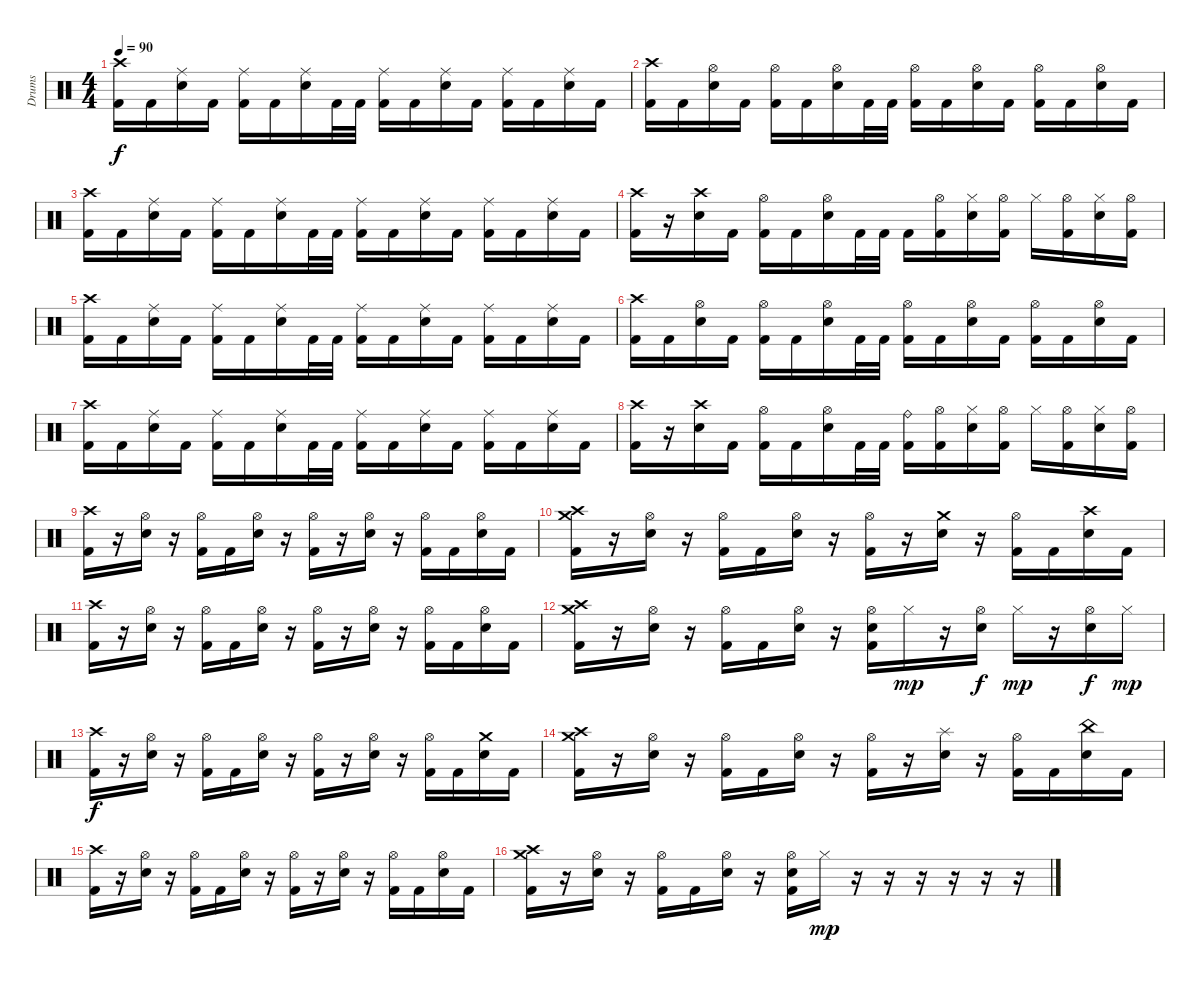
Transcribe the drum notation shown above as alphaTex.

\track ("Drums" "Drums") {instrument percussion}
\staff {score}
\articulation defaults
\ts (4 4)
\tempo 90
\clef neutral
\ks c
("Crash high (hit)" "Kick (hit) 2").16{dy f} "Kick (hit) 2".16 ("Ride (middle)" "Snare (hit) 2").16 "Kick (hit) 2".16 ("Ride (middle)" "Kick (hit) 2").16 "Kick (hit) 2".16 ("Ride (middle)" "Snare (hit) 2").16 "Kick (hit) 2".32 "Kick (hit) 2".32 ("Ride (middle)" "Kick (hit) 2").16 "Kick (hit) 2".16 ("Ride (middle)" "Snare (hit) 2").16 "Kick (hit) 2".16 ("Ride (middle)" "Kick (hit) 2").16 "Kick (hit) 2".16 ("Ride (middle)" "Snare (hit) 2").16 "Kick (hit) 2".16 |
("Crash high (hit)" "Kick (hit) 2").16 "Kick (hit) 2".16 ("Hi-Hat (open)" "Snare (hit) 2").16 "Kick (hit) 2".16 ("Hi-Hat (open)" "Kick (hit) 2").16 "Kick (hit) 2".16 ("Hi-Hat (open)" "Snare (hit) 2").16 "Kick (hit) 2".32 "Kick (hit) 2".32 ("Hi-Hat (open)" "Kick (hit) 2").16 "Kick (hit) 2".16 ("Hi-Hat (open)" "Snare (hit) 2").16 "Kick (hit) 2".16 ("Hi-Hat (open)" "Kick (hit) 2").16 "Kick (hit) 2".16 ("Hi-Hat (open)" "Snare (hit) 2").16 "Kick (hit) 2".16 |
("Crash high (hit)" "Kick (hit) 2").16 "Kick (hit) 2".16 ("Ride (middle)" "Snare (hit) 2").16 "Kick (hit) 2".16 ("Ride (middle)" "Kick (hit) 2").16 "Kick (hit) 2".16 ("Ride (middle)" "Snare (hit) 2").16 "Kick (hit) 2".32 "Kick (hit) 2".32 ("Ride (middle)" "Kick (hit) 2").16 "Kick (hit) 2".16 ("Ride (middle)" "Snare (hit) 2").16 "Kick (hit) 2".16 ("Ride (middle)" "Kick (hit) 2").16 "Kick (hit) 2".16 ("Ride (middle)" "Snare (hit) 2").16 "Kick (hit) 2".16 |
("Crash high (hit)" "Kick (hit) 2").16 r.16 ("Crash high (hit)" "Snare (hit) 2").16 "Kick (hit) 2".16 ("Hi-Hat (open)" "Kick (hit) 2").16 "Kick (hit) 2".16 ("Hi-Hat (open)" "Snare (hit) 2").16 "Kick (hit) 2".32 "Kick (hit) 2".32 "Kick (hit) 2".16 ("Hi-Hat (open)" "Kick (hit) 2").16 ("Hi-Hat (closed)" "Snare (hit) 2").16 ("Hi-Hat (open)" "Kick (hit) 2").16 "Hi-Hat (closed)".16 ("Hi-Hat (open)" "Kick (hit) 2").16 ("Hi-Hat (closed)" "Snare (hit) 2").16 ("Hi-Hat (open)" "Kick (hit) 2").16 |
("Crash high (hit)" "Kick (hit) 2").16 "Kick (hit) 2".16 ("Ride (middle)" "Snare (hit) 2").16 "Kick (hit) 2".16 ("Ride (middle)" "Kick (hit) 2").16 "Kick (hit) 2".16 ("Ride (middle)" "Snare (hit) 2").16 "Kick (hit) 2".32 "Kick (hit) 2".32 ("Ride (middle)" "Kick (hit) 2").16 "Kick (hit) 2".16 ("Ride (middle)" "Snare (hit) 2").16 "Kick (hit) 2".16 ("Ride (middle)" "Kick (hit) 2").16 "Kick (hit) 2".16 ("Ride (middle)" "Snare (hit) 2").16 "Kick (hit) 2".16 |
("Crash high (hit)" "Kick (hit) 2").16 "Kick (hit) 2".16 ("Hi-Hat (open)" "Snare (hit) 2").16 "Kick (hit) 2".16 ("Hi-Hat (open)" "Kick (hit) 2").16 "Kick (hit) 2".16 ("Hi-Hat (open)" "Snare (hit) 2").16 "Kick (hit) 2".32 "Kick (hit) 2".32 ("Hi-Hat (open)" "Kick (hit) 2").16 "Kick (hit) 2".16 ("Hi-Hat (open)" "Snare (hit) 2").16 "Kick (hit) 2".16 ("Hi-Hat (open)" "Kick (hit) 2").16 "Kick (hit) 2".16 ("Hi-Hat (open)" "Snare (hit) 2").16 "Kick (hit) 2".16 |
("Crash high (hit)" "Kick (hit) 2").16 "Kick (hit) 2".16 ("Ride (middle)" "Snare (hit) 2").16 "Kick (hit) 2".16 ("Ride (middle)" "Kick (hit) 2").16 "Kick (hit) 2".16 ("Ride (middle)" "Snare (hit) 2").16 "Kick (hit) 2".32 "Kick (hit) 2".32 ("Ride (middle)" "Kick (hit) 2").16 "Kick (hit) 2".16 ("Ride (middle)" "Snare (hit) 2").16 "Kick (hit) 2".16 ("Ride (middle)" "Kick (hit) 2").16 "Kick (hit) 2".16 ("Ride (middle)" "Snare (hit) 2").16 "Kick (hit) 2".16 |
("Crash high (hit)" "Kick (hit) 2").16 r.16 ("Crash high (hit)" "Snare (hit) 2").16 "Kick (hit) 2".16 ("Hi-Hat (open)" "Kick (hit) 2").16 "Kick (hit) 2".16 ("Hi-Hat (open)" "Snare (hit) 2").16 "Kick (hit) 2".32 "Kick (hit) 2".32 ("Ride (bell)" "Kick (hit) 2").16 ("Hi-Hat (open)" "Kick (hit) 2").16 ("Hi-Hat (closed)" "Snare (hit) 2").16 ("Hi-Hat (open)" "Kick (hit) 2").16 "Hi-Hat (closed)".16 ("Hi-Hat (open)" "Kick (hit) 2").16 ("Hi-Hat (closed)" "Snare (hit) 2").16 ("Hi-Hat (open)" "Kick (hit) 2").16 |
("Crash high (hit)" "Kick (hit) 2").16 r.16 ("Hi-Hat (open)" "Snare (hit) 2").16 r.16 ("Hi-Hat (open)" "Kick (hit) 2").16 "Kick (hit) 2".16 ("Hi-Hat (open)" "Snare (hit) 2").16 r.16 ("Hi-Hat (open)" "Kick (hit) 2").16 r.16 ("Hi-Hat (open)" "Snare (hit) 2").16 r.16 ("Hi-Hat (open)" "Kick (hit) 2").16 "Kick (hit) 2".16 ("Hi-Hat (open)" "Snare (hit) 2").16 "Kick (hit) 2".16 |
("Crash medium (hit)" "Crash high (hit)" "Kick (hit) 2").16 r.16 ("Hi-Hat (open)" "Snare (hit) 2").16 r.16 ("Hi-Hat (open)" "Kick (hit) 2").16 "Kick (hit) 2".16 ("Hi-Hat (open)" "Snare (hit) 2").16 r.16 ("Hi-Hat (open)" "Kick (hit) 2").16 r.16 ("Crash medium (hit)" "Snare (hit) 2").16 r.16 ("Hi-Hat (open)" "Kick (hit) 2").16 "Kick (hit) 2".16 ("Crash high (hit)" "Snare (hit) 2").16 "Kick (hit) 2".16 |
("Crash high (hit)" "Kick (hit) 2").16 r.16 ("Hi-Hat (open)" "Snare (hit) 2").16 r.16 ("Hi-Hat (open)" "Kick (hit) 2").16 "Kick (hit) 2".16 ("Hi-Hat (open)" "Snare (hit) 2").16 r.16 ("Hi-Hat (open)" "Kick (hit) 2").16 r.16 ("Hi-Hat (open)" "Snare (hit) 2").16 r.16 ("Hi-Hat (open)" "Kick (hit) 2").16 "Kick (hit) 2".16 ("Hi-Hat (open)" "Snare (hit) 2").16 "Kick (hit) 2".16 |
("Crash medium (hit)" "Crash high (hit)" "Kick (hit) 2").16 r.16 ("Hi-Hat (open)" "Snare (hit) 2").16 r.16 ("Hi-Hat (open)" "Kick (hit) 2").16 "Kick (hit) 2".16 ("Hi-Hat (open)" "Snare (hit) 2").16 r.16 ("Hi-Hat (open)" "Snare (hit) 2" "Kick (hit) 2").16 "Hi-Hat (closed)".16{dy mp} r.16 ("Hi-Hat (open)" "Snare (hit) 2").16{dy f} "Hi-Hat (closed)".16{dy mp} r.16 ("Hi-Hat (open)" "Snare (hit) 2").16{dy f} "Hi-Hat (closed)".16{dy mp} |
("Crash high (hit)" "Kick (hit) 2").16{dy f} r.16 ("Hi-Hat (open)" "Snare (hit) 2").16 r.16 ("Hi-Hat (open)" "Kick (hit) 2").16 "Kick (hit) 2".16 ("Hi-Hat (open)" "Snare (hit) 2").16 r.16 ("Hi-Hat (open)" "Kick (hit) 2").16 r.16 ("Hi-Hat (open)" "Snare (hit) 2").16 r.16 ("Hi-Hat (open)" "Kick (hit) 2").16 "Kick (hit) 2".16 ("Crash medium (hit)" "Snare (hit) 2").16 "Kick (hit) 2".16 |
("Crash medium (hit)" "Crash high (hit)" "Kick (hit) 2").16 r.16 ("Hi-Hat (open)" "Snare (hit) 2").16 r.16 ("Hi-Hat (open)" "Kick (hit) 2").16 "Kick (hit) 2".16 ("Hi-Hat (open)" "Snare (hit) 2").16 r.16 ("Hi-Hat (open)" "Kick (hit) 2").16 r.16 ("Splash (hit)" "Snare (hit) 2").16 r.16 ("Hi-Hat (open)" "Kick (hit) 2").16 "Kick (hit) 2".16 ("China (hit)" "Snare (hit) 2").16 "Kick (hit) 2".16 |
("Crash high (hit)" "Kick (hit) 2").16 r.16 ("Hi-Hat (open)" "Snare (hit) 2").16 r.16 ("Hi-Hat (open)" "Kick (hit) 2").16 "Kick (hit) 2".16 ("Hi-Hat (open)" "Snare (hit) 2").16 r.16 ("Hi-Hat (open)" "Kick (hit) 2").16 r.16 ("Hi-Hat (open)" "Snare (hit) 2").16 r.16 ("Hi-Hat (open)" "Kick (hit) 2").16 "Kick (hit) 2".16 ("Hi-Hat (open)" "Snare (hit) 2").16 "Kick (hit) 2".16 |
("Crash medium (hit)" "Crash high (hit)" "Kick (hit) 2").16 r.16 ("Hi-Hat (open)" "Snare (hit) 2").16 r.16 ("Hi-Hat (open)" "Kick (hit) 2").16 "Kick (hit) 2".16 ("Hi-Hat (open)" "Snare (hit) 2").16 r.16 ("Hi-Hat (open)" "Snare (hit) 2" "Kick (hit) 2").16 "Hi-Hat (closed)".16{dy mp} r.16 r.16 r.16 r.16 r.16 r.16
